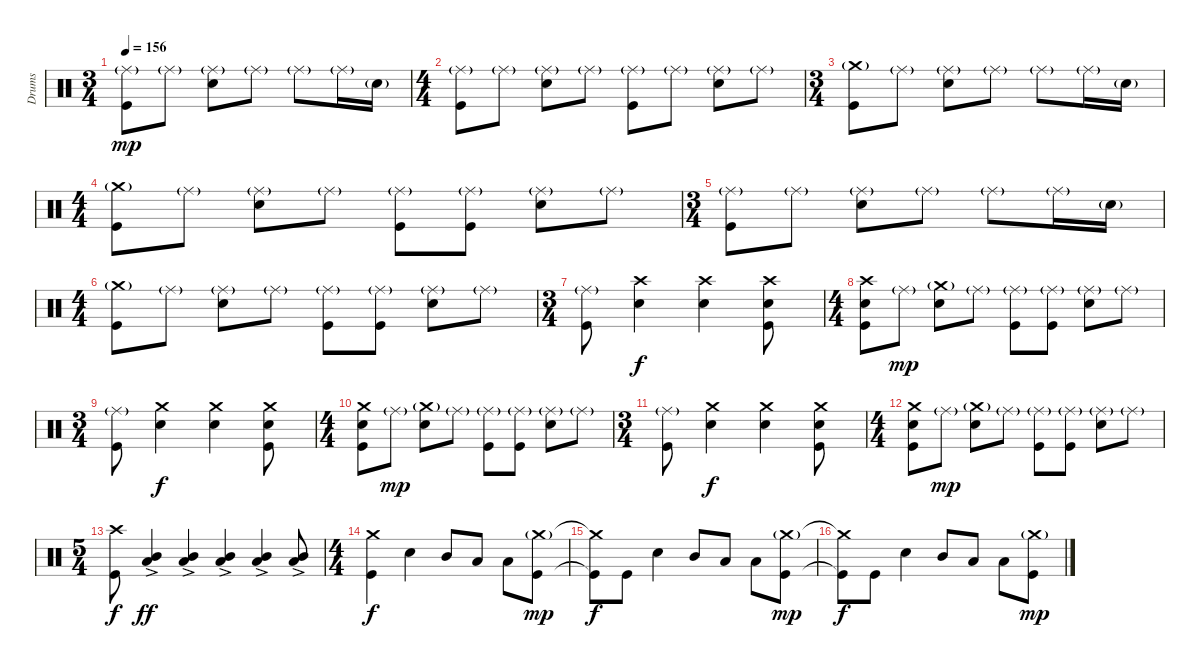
\track ("Drums" "Drums") {instrument percussion}
\staff {score}
\articulation defaults
\ts (3 4)
\tempo 156
\clef neutral
\ks c
("Ride (middle)"{g} "Kick (hit)").8{dy mp} "Ride (middle)"{g}.8 ("Ride (middle)"{g} "Electric Snare (hit)").8 "Ride (middle)"{g}.8 "Ride (middle)"{g}.8 "Ride (middle)"{g}.16 "Electric Snare (hit)"{g}.16 |
\ts (4 4)
("Ride (middle)"{g} "Kick (hit)").8 "Ride (middle)"{g}.8 ("Ride (middle)"{g} "Electric Snare (hit)").8 "Ride (middle)"{g}.8 ("Ride (middle)"{g} "Kick (hit)").8 "Ride (middle)"{g}.8 ("Ride (middle)"{g} "Electric Snare (hit)").8 "Ride (middle)"{g}.8 |
\ts (3 4)
("Crash medium (hit)"{g} "Kick (hit)").8 "Ride (middle)"{g}.8 ("Ride (middle)"{g} "Electric Snare (hit)").8 "Ride (middle)"{g}.8 "Ride (middle)"{g}.8 "Ride (middle)"{g}.16 "Electric Snare (hit)"{g}.16 |
\ts (4 4)
("Crash medium (hit)"{g} "Kick (hit)").8 "Ride (middle)"{g}.8 ("Ride (middle)"{g} "Electric Snare (hit)").8 "Ride (middle)"{g}.8 ("Ride (middle)"{g} "Kick (hit)").8 ("Ride (middle)"{g} "Kick (hit)").8 ("Ride (middle)"{g} "Electric Snare (hit)").8 "Ride (middle)"{g}.8 |
\ts (3 4)
("Ride (middle)"{g} "Kick (hit)").8 "Ride (middle)"{g}.8 ("Ride (middle)"{g} "Electric Snare (hit)").8 "Ride (middle)"{g}.8 "Ride (middle)"{g}.8 "Ride (middle)"{g}.16 "Electric Snare (hit)"{g}.16 |
\ts (4 4)
("Crash medium (hit)"{g} "Kick (hit)").8 "Ride (middle)"{g}.8 ("Ride (middle)"{g} "Electric Snare (hit)").8 "Ride (middle)"{g}.8 ("Ride (middle)"{g} "Kick (hit)").8 ("Ride (middle)"{g} "Kick (hit)").8 ("Ride (middle)"{g} "Electric Snare (hit)").8 "Ride (middle)"{g}.8 |
\ts (3 4)
("Ride (middle)"{g} "Kick (hit)").8 ("Crash high (hit)" "Electric Snare (hit)").4{dy f} ("Crash high (hit)" "Electric Snare (hit)").4 ("Crash high (hit)" "Electric Snare (hit)" "Kick (hit)").8 |
\ts (4 4)
("Crash high (hit)" "Electric Snare (hit)" "Kick (hit)").8 "Ride (middle)"{g}.8{dy mp} ("Crash medium (hit)"{g} "Electric Snare (hit)").8 "Ride (middle)"{g}.8 ("Ride (middle)"{g} "Kick (hit)").8 ("Ride (middle)"{g} "Kick (hit)").8 ("Ride (middle)"{g} "Electric Snare (hit)").8 "Ride (middle)"{g}.8 |
\ts (3 4)
("Ride (middle)"{g} "Kick (hit)").8 ("Crash medium (hit)" "Electric Snare (hit)").4{dy f} ("Crash medium (hit)" "Electric Snare (hit)").4 ("Crash medium (hit)" "Electric Snare (hit)" "Kick (hit)").8 |
\ts (4 4)
("Crash medium (hit)" "Electric Snare (hit)" "Kick (hit)").8 "Ride (middle)"{g}.8{dy mp} ("Crash medium (hit)"{g} "Electric Snare (hit)").8 "Ride (middle)"{g}.8 ("Ride (middle)"{g} "Kick (hit)").8 ("Ride (middle)"{g} "Kick (hit)").8 ("Ride (middle)"{g} "Electric Snare (hit)").8 "Ride (middle)"{g}.8 |
\ts (3 4)
("Ride (middle)"{g} "Kick (hit)").8 ("Crash medium (hit)" "Electric Snare (hit)").4{dy f} ("Crash medium (hit)" "Electric Snare (hit)").4 ("Crash medium (hit)" "Electric Snare (hit)" "Kick (hit)").8 |
\ts (4 4)
("Crash medium (hit)" "Electric Snare (hit)" "Kick (hit)").8 "Ride (middle)"{g}.8{dy mp} ("Crash medium (hit)"{g} "Electric Snare (hit)").8 "Ride (middle)"{g}.8 ("Ride (middle)"{g} "Kick (hit)").8 ("Ride (middle)"{g} "Kick (hit)").8 ("Ride (middle)"{g} "Electric Snare (hit)").8 "Ride (middle)"{g}.8 |
\ts (5 4)
("Crash high (hit)" "Kick (hit)").8{dy f} ("Mid Tom (hit)"{ac} "Low Tom (hit)"{ac}).4{dy ff} ("Mid Tom (hit)"{ac} "Low Tom (hit)"{ac}).4 ("Mid Tom (hit)"{ac} "Low Tom (hit)"{ac}).4 ("Mid Tom (hit)"{ac} "Low Tom (hit)"{ac}).4 ("Mid Tom (hit)"{ac} "Low Tom (hit)"{ac}).8 |
\ts (4 4)
("Crash medium (hit)" "Kick (hit)").4{dy f} "Electric Snare (hit)".4 "Mid Tom (hit)".8 "Low Tom (hit)".8 "Low Tom (hit)".8 ("Crash medium (hit)"{g} "Kick (hit)").8{dy mp} |
("Crash medium (hit)"{t} "Kick (hit)"{t}).8{dy f} "Kick (hit)".8 "Electric Snare (hit)".4 "Mid Tom (hit)".8 "Low Tom (hit)".8 "Low Tom (hit)".8 ("Crash medium (hit)"{g} "Kick (hit)").8{dy mp} |
("Crash medium (hit)"{t} "Kick (hit)"{t}).8{dy f} "Kick (hit)".8 "Electric Snare (hit)".4 "Mid Tom (hit)".8 "Low Tom (hit)".8 "Low Tom (hit)".8 ("Crash medium (hit)"{g} "Kick (hit)").8{dy mp}
